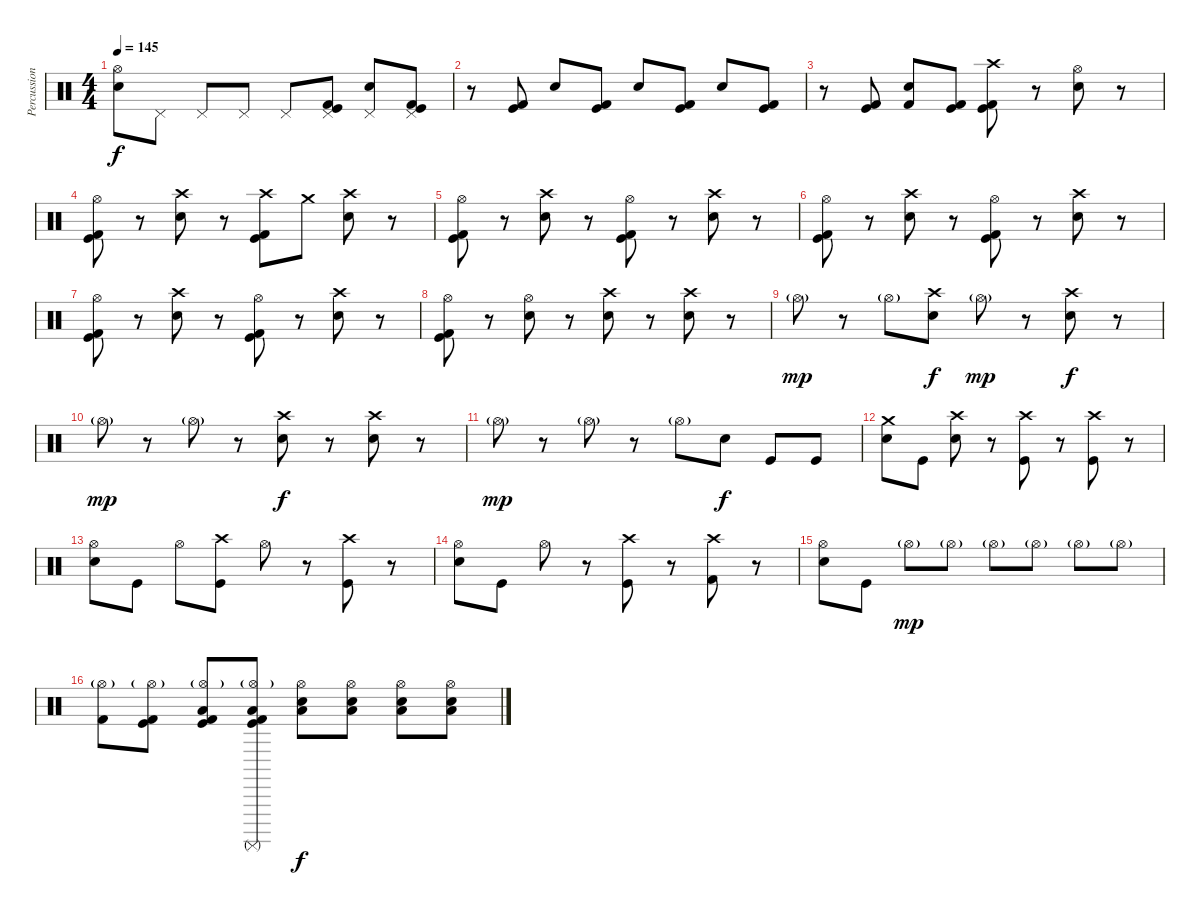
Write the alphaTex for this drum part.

\track ("Percussion" "Percussion") {instrument percussion}
\staff {score}
\articulation defaults
\ts (4 4)
\tempo 145
\clef neutral
\ks c
("Hi-Hat (open)" "Snare (hit) 2").8{dy f} "Pedal Hi-Hat (hit)".8 "Pedal Hi-Hat (hit)".8 "Pedal Hi-Hat (hit)".8 "Pedal Hi-Hat (hit)".8 ("Pedal Hi-Hat (hit)" "Kick (hit) 2" "Kick (hit)").8 ("Pedal Hi-Hat (hit)" "Snare (hit) 2").8 ("Pedal Hi-Hat (hit)" "Kick (hit) 2" "Kick (hit)").8 |
r.8 ("Kick (hit)" "Kick (hit) 2").8 "Snare (hit) 2".8 ("Kick (hit) 2" "Kick (hit)").8 "Snare (hit) 2".8 ("Kick (hit) 2" "Kick (hit)").8 "Snare (hit) 2".8 ("Kick (hit) 2" "Kick (hit)").8 |
r.8 ("Kick (hit) 2" "Kick (hit)").8 ("Snare (hit) 2" "Kick (hit) 2").8 ("Kick (hit) 2" "Kick (hit)").8 ("Crash high (hit)" "Kick (hit)" "Kick (hit) 2").8 r.8 ("Hi-Hat (open)" "Snare (hit) 2").8 r.8 |
("Kick (hit)" "Kick (hit) 2" "Hi-Hat (open)").8 r.8 ("Snare (hit) 2" "Crash high (hit)").8 r.8 ("Crash high (hit)" "Kick (hit) 2" "Kick (hit)").8 "Crash medium (hit)".8 ("Crash high (hit)" "Snare (hit) 2").8 r.8 |
("Hi-Hat (open)" "Kick (hit)" "Kick (hit) 2").8 r.8 ("Crash high (hit)" "Snare (hit) 2").8 r.8 ("Kick (hit) 2" "Kick (hit)" "Hi-Hat (open)").8 r.8 ("Snare (hit) 2" "Crash high (hit)").8 r.8 |
("Hi-Hat (open)" "Kick (hit)" "Kick (hit) 2").8 r.8 ("Crash high (hit)" "Snare (hit) 2").8 r.8 ("Kick (hit) 2" "Kick (hit)" "Hi-Hat (open)").8 r.8 ("Snare (hit) 2" "Crash high (hit)").8 r.8 |
("Hi-Hat (open)" "Kick (hit)" "Kick (hit) 2").8 r.8 ("Crash high (hit)" "Snare (hit) 2").8 r.8 ("Kick (hit) 2" "Kick (hit)" "Hi-Hat (open)").8 r.8 ("Snare (hit) 2" "Crash high (hit)").8 r.8 |
("Kick (hit) 2" "Kick (hit)" "Hi-Hat (open)").8 r.8 ("Snare (hit) 2" "Hi-Hat (open)").8 r.8 ("Crash high (hit)" "Snare (hit) 2").8 r.8 ("Crash high (hit)" "Snare (hit) 2").8 r.8 |
"Hi-Hat (open)"{g}.8{dy mp} r.8 "Hi-Hat (open)"{g}.8 ("Crash high (hit)" "Snare (hit) 2").8{dy f} "Hi-Hat (open)"{g}.8{dy mp} r.8 ("Crash high (hit)" "Snare (hit) 2").8{dy f} r.8 |
"Hi-Hat (open)"{g}.8{dy mp} r.8 "Hi-Hat (open)"{g}.8 r.8 ("Crash high (hit)" "Snare (hit) 2").8{dy f} r.8 ("Crash high (hit)" "Snare (hit) 2").8 r.8 |
"Hi-Hat (open)"{g}.8{dy mp} r.8 "Hi-Hat (open)"{g}.8 r.8 "Hi-Hat (open)"{g}.8 "Snare (hit) 2".8{dy f} "Kick (hit)".8 "Kick (hit)".8 |
("Snare (hit) 2" "Crash medium (hit)").8 "Kick (hit)".8 ("Crash high (hit)" "Snare (hit) 2").8 r.8 ("Crash high (hit)" "Kick (hit)").8 r.8 ("Crash high (hit)" "Kick (hit)").8 r.8 |
("Hi-Hat (open)" "Snare (hit) 2").8 "Kick (hit)".8 "Hi-Hat (open)".8 ("Crash high (hit)" "Kick (hit)").8 "Hi-Hat (open)".8 r.8 ("Crash high (hit)" "Kick (hit)").8 r.8 |
("Hi-Hat (open)" "Snare (hit) 2").8 "Kick (hit)".8 "Hi-Hat (open)".8 r.8 ("Crash high (hit)" "Kick (hit)").8 r.8 ("Crash high (hit)" "Kick (hit) 2").8 r.8 |
("Hi-Hat (open)" "Snare (hit) 2").8 "Kick (hit)".8 "Hi-Hat (open)"{g}.8{dy mp} "Hi-Hat (open)"{g}.8 "Hi-Hat (open)"{g}.8 "Hi-Hat (open)"{g}.8 "Hi-Hat (open)"{g}.8 "Hi-Hat (open)"{g}.8 |
("Hi-Hat (open)"{g} "Kick (hit) 2").8 ("Hi-Hat (open)"{g} "Kick (hit) 2" "Kick (hit)").8 ("Hi-Hat (open)"{g} "Kick (hit)" "Low Tom (hit)" "Kick (hit) 2").8 ("Hi-Hat (open)"{g} "Kick (hit)" "Low Tom (hit)" "Surdo (mute)" "Kick (hit) 2").8 ("Snare (hit) 2" "Hi-Hat (open)" "Low Tom (hit)").8{dy f} ("Snare (hit) 2" "Hi-Hat (open)" "Low Tom (hit)").8 ("Snare (hit) 2" "Hi-Hat (open)" "Low Tom (hit)").8 ("Snare (hit) 2" "Hi-Hat (open)" "Low Tom (hit)").8
